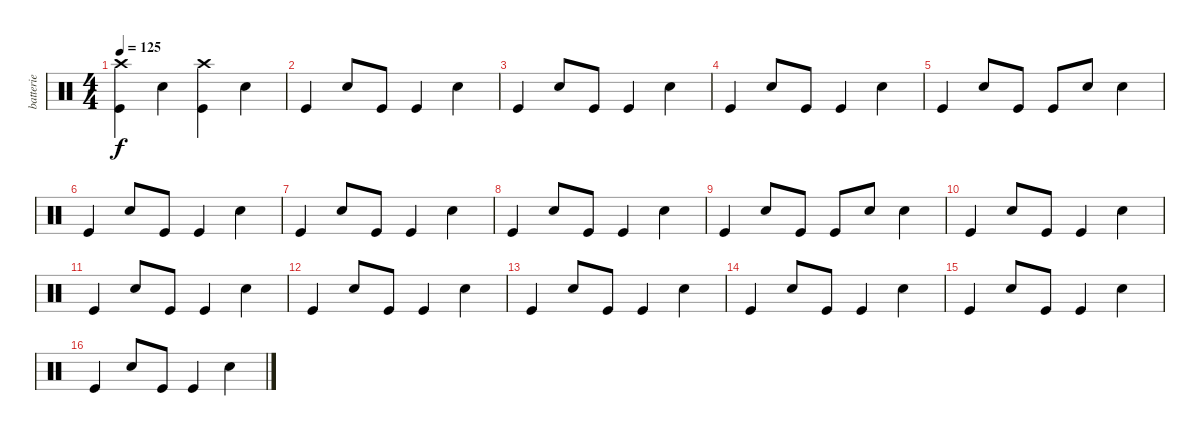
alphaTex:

\track ("batterie" "batterie") {instrument percussion}
\staff {score}
\articulation defaults
\ts (4 4)
\tempo 125
\clef neutral
\ks c
("Crash high (hit)" "Kick (hit)").4{dy f} "Snare (hit) 2".4 ("Crash high (hit)" "Kick (hit)").4 "Snare (hit) 2".4 |
"Kick (hit)".4 "Snare (hit) 2".8 "Kick (hit)".8 "Kick (hit)".4 "Snare (hit) 2".4 |
"Kick (hit)".4 "Snare (hit) 2".8 "Kick (hit)".8 "Kick (hit)".4 "Snare (hit) 2".4 |
"Kick (hit)".4 "Snare (hit) 2".8 "Kick (hit)".8 "Kick (hit)".4 "Snare (hit) 2".4 |
"Kick (hit)".4 "Snare (hit) 2".8 "Kick (hit)".8 "Kick (hit)".8 "Snare (hit) 2".8 "Snare (hit) 2".4 |
"Kick (hit)".4 "Snare (hit) 2".8 "Kick (hit)".8 "Kick (hit)".4 "Snare (hit) 2".4 |
"Kick (hit)".4 "Snare (hit) 2".8 "Kick (hit)".8 "Kick (hit)".4 "Snare (hit) 2".4 |
"Kick (hit)".4 "Snare (hit) 2".8 "Kick (hit)".8 "Kick (hit)".4 "Snare (hit) 2".4 |
"Kick (hit)".4 "Snare (hit) 2".8 "Kick (hit)".8 "Kick (hit)".8 "Snare (hit) 2".8 "Snare (hit) 2".4 |
"Kick (hit)".4 "Snare (hit) 2".8 "Kick (hit)".8 "Kick (hit)".4 "Snare (hit) 2".4 |
"Kick (hit)".4 "Snare (hit) 2".8 "Kick (hit)".8 "Kick (hit)".4 "Snare (hit) 2".4 |
"Kick (hit)".4 "Snare (hit) 2".8 "Kick (hit)".8 "Kick (hit)".4 "Snare (hit) 2".4 |
"Kick (hit)".4 "Snare (hit) 2".8 "Kick (hit)".8 "Kick (hit)".4 "Snare (hit) 2".4 |
"Kick (hit)".4 "Snare (hit) 2".8 "Kick (hit)".8 "Kick (hit)".4 "Snare (hit) 2".4 |
"Kick (hit)".4 "Snare (hit) 2".8 "Kick (hit)".8 "Kick (hit)".4 "Snare (hit) 2".4 |
"Kick (hit)".4 "Snare (hit) 2".8 "Kick (hit)".8 "Kick (hit)".4 "Snare (hit) 2".4
